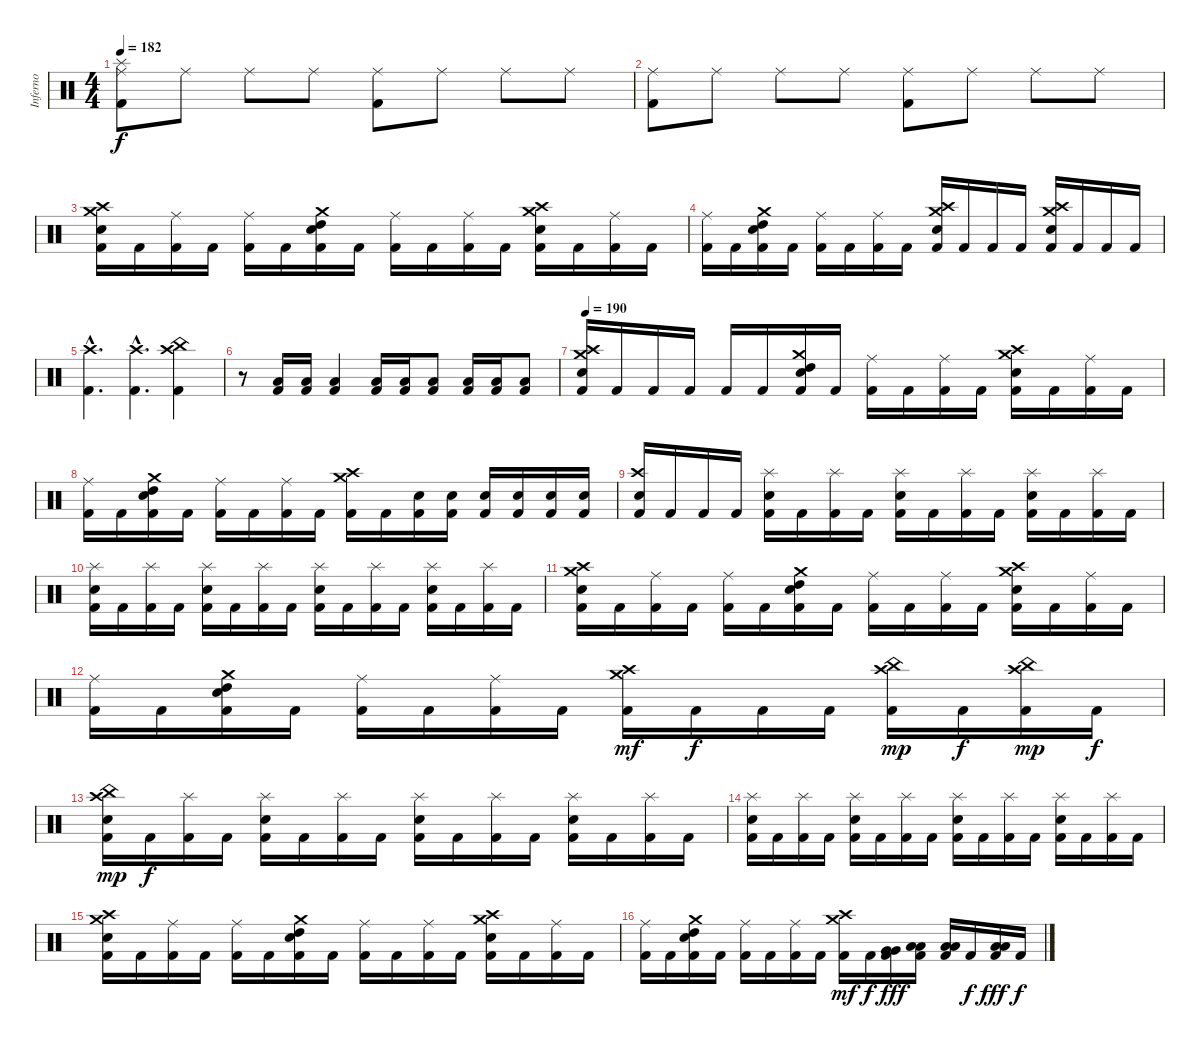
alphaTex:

\track ("Inferno" "Inferno") {instrument percussion}
\staff {score}
\articulation defaults
\ts (4 4)
\tempo 182
\clef neutral
\ks c
("Splash (hit)" "Ride (middle)" "Kick (hit) 2").8{dy f} "Ride (middle)".8 "Ride (middle)".8 "Ride (middle)".8 ("Ride (middle)" "Kick (hit) 2").8 "Ride (middle)".8 "Ride (middle)".8 "Ride (middle)".8 |
("Ride (middle)" "Kick (hit) 2").8 "Ride (middle)".8 "Ride (middle)".8 "Ride (middle)".8 ("Ride (middle)" "Kick (hit) 2").8 "Ride (middle)".8 "Ride (middle)".8 "Ride (middle)".8 |
("Crash medium (hit)" "Crash high (hit)" "Snare (hit) 2" "Kick (hit) 2").16 "Kick (hit) 2".16 ("Ride (middle)" "Kick (hit) 2").16 "Kick (hit) 2".16 ("Ride (middle)" "Kick (hit) 2").16 "Kick (hit) 2".16 ("Crash medium (hit)" "High Tom (hit)" "Snare (hit) 2" "Kick (hit) 2").16 "Kick (hit) 2".16 ("Ride (middle)" "Kick (hit) 2").16 "Kick (hit) 2".16 ("Ride (middle)" "Kick (hit) 2").16 "Kick (hit) 2".16 ("Crash medium (hit)" "Crash high (hit)" "Snare (hit) 2" "Kick (hit) 2").16 "Kick (hit) 2".16 ("Ride (middle)" "Kick (hit) 2").16 "Kick (hit) 2".16 |
("Ride (middle)" "Kick (hit) 2").16 "Kick (hit) 2".16 ("Crash medium (hit)" "High Tom (hit)" "Snare (hit) 2" "Kick (hit) 2").16 "Kick (hit) 2".16 ("Ride (middle)" "Kick (hit) 2").16 "Kick (hit) 2".16 ("Ride (middle)" "Kick (hit) 2").16 "Kick (hit) 2".16 ("Crash medium (hit)" "Crash high (hit)" "Snare (hit) 2" "Kick (hit) 2").16 "Kick (hit) 2".16 "Kick (hit) 2".16 "Kick (hit) 2".16 ("Crash medium (hit)" "Crash high (hit)" "Snare (hit) 2" "Kick (hit) 2").16 "Kick (hit) 2".16 "Kick (hit) 2".16 "Kick (hit) 2".16 |
("Crash high (hit)"{hac} "Kick (hit) 2"{hac}).4{d} ("Crash high (hit)"{hac} "Kick (hit) 2"{hac}).4{d} ("Crash high (hit)" "China (hit)" "Kick (hit) 2").4 |
r.8 ("Low Floor Tom (hit)" "Kick (hit) 2").16 ("Low Floor Tom (hit)" "Kick (hit) 2").16 ("Low Floor Tom (hit)" "Kick (hit) 2").4 ("Low Floor Tom (hit)" "Kick (hit) 2").16 ("Low Floor Tom (hit)" "Kick (hit) 2").16 ("Low Floor Tom (hit)" "Kick (hit) 2").8 ("Low Floor Tom (hit)" "Kick (hit) 2").16 ("Low Floor Tom (hit)" "Kick (hit) 2").16 ("Low Floor Tom (hit)" "Kick (hit) 2").8 |
\tempo 190
("Crash medium (hit)" "Crash high (hit)" "Snare (hit) 2" "Kick (hit) 2").16 "Kick (hit) 2".16 "Kick (hit) 2".16 "Kick (hit) 2".16 "Kick (hit) 2".16 "Kick (hit) 2".16 ("Crash medium (hit)" "High Tom (hit)" "Snare (hit) 2" "Kick (hit) 2").16 "Kick (hit) 2".16 ("Ride (middle)" "Kick (hit) 2").16 "Kick (hit) 2".16 ("Ride (middle)" "Kick (hit) 2").16 "Kick (hit) 2".16 ("Crash medium (hit)" "Crash high (hit)" "Snare (hit) 2" "Kick (hit) 2").16 "Kick (hit) 2".16 ("Ride (middle)" "Kick (hit) 2").16 "Kick (hit) 2".16 |
("Ride (middle)" "Kick (hit) 2").16 "Kick (hit) 2".16 ("Crash medium (hit)" "High Tom (hit)" "Snare (hit) 2" "Kick (hit) 2").16 "Kick (hit) 2".16 ("Ride (middle)" "Kick (hit) 2").16 "Kick (hit) 2".16 ("Ride (middle)" "Kick (hit) 2").16 "Kick (hit) 2".16 ("Crash medium (hit)" "Crash high (hit)" "Kick (hit) 2").16 "Kick (hit) 2".16 ("Snare (hit) 2" "Kick (hit) 2").16 ("Snare (hit) 2" "Kick (hit) 2").16 ("Snare (hit) 2" "Kick (hit) 2").16 ("Snare (hit) 2" "Kick (hit) 2").16 ("Snare (hit) 2" "Kick (hit) 2").16 ("Snare (hit) 2" "Kick (hit) 2").16 |
\section ("" "")
("Crash high (hit)" "Snare (hit) 2" "Kick (hit) 2").16 "Kick (hit) 2".16 "Kick (hit) 2".16 "Kick (hit) 2".16 ("Splash (hit)" "Snare (hit) 2" "Kick (hit) 2").16 "Kick (hit) 2".16 ("Splash (hit)" "Kick (hit) 2").16 "Kick (hit) 2".16 ("Splash (hit)" "Snare (hit) 2" "Kick (hit) 2").16 "Kick (hit) 2".16 ("Splash (hit)" "Kick (hit) 2").16 "Kick (hit) 2".16 ("Splash (hit)" "Snare (hit) 2" "Kick (hit) 2").16 "Kick (hit) 2".16 ("Splash (hit)" "Kick (hit) 2").16 "Kick (hit) 2".16 |
("Splash (hit)" "Snare (hit) 2" "Kick (hit) 2").16 "Kick (hit) 2".16 ("Splash (hit)" "Kick (hit) 2").16 "Kick (hit) 2".16 ("Splash (hit)" "Snare (hit) 2" "Kick (hit) 2").16 "Kick (hit) 2".16 ("Splash (hit)" "Kick (hit) 2").16 "Kick (hit) 2".16 ("Splash (hit)" "Snare (hit) 2" "Kick (hit) 2").16 "Kick (hit) 2".16 ("Splash (hit)" "Kick (hit) 2").16 "Kick (hit) 2".16 ("Splash (hit)" "Snare (hit) 2" "Kick (hit) 2").16 "Kick (hit) 2".16 ("Splash (hit)" "Kick (hit) 2").16 "Kick (hit) 2".16 |
("Crash medium (hit)" "Crash high (hit)" "Snare (hit) 2" "Kick (hit) 2").16 "Kick (hit) 2".16 ("Ride (middle)" "Kick (hit) 2").16 "Kick (hit) 2".16 ("Ride (middle)" "Kick (hit) 2").16 "Kick (hit) 2".16 ("Crash medium (hit)" "High Tom (hit)" "Snare (hit) 2" "Kick (hit) 2").16 "Kick (hit) 2".16 ("Ride (middle)" "Kick (hit) 2").16 "Kick (hit) 2".16 ("Ride (middle)" "Kick (hit) 2").16 "Kick (hit) 2".16 ("Crash medium (hit)" "Crash high (hit)" "Snare (hit) 2" "Kick (hit) 2").16 "Kick (hit) 2".16 ("Ride (middle)" "Kick (hit) 2").16 "Kick (hit) 2".16 |
("Ride (middle)" "Kick (hit) 2").16 "Kick (hit) 2".16 ("Crash medium (hit)" "High Tom (hit)" "Snare (hit) 2" "Kick (hit) 2").16 "Kick (hit) 2".16 ("Ride (middle)" "Kick (hit) 2").16 "Kick (hit) 2".16 ("Ride (middle)" "Kick (hit) 2").16 "Kick (hit) 2".16 ("Crash high (hit)" "Crash medium (hit)" "Kick (hit) 2").16{dy mf} "Kick (hit) 2".16{dy f} "Kick (hit) 2".16 "Kick (hit) 2".16 ("Crash high (hit)" "China (hit)" "Kick (hit) 2").16{dy mp} "Kick (hit) 2".16{dy f} ("Crash high (hit)" "China (hit)" "Kick (hit) 2").16{dy mp} "Kick (hit) 2".16{dy f} |
("Crash high (hit)" "China (hit)" "Snare (hit) 2" "Kick (hit) 2").16{dy mp} "Kick (hit) 2".16{dy f} ("Splash (hit)" "Kick (hit) 2").16 "Kick (hit) 2".16 ("Splash (hit)" "Snare (hit) 2" "Kick (hit) 2").16 "Kick (hit) 2".16 ("Splash (hit)" "Kick (hit) 2").16 "Kick (hit) 2".16 ("Splash (hit)" "Snare (hit) 2" "Kick (hit) 2").16 "Kick (hit) 2".16 ("Splash (hit)" "Kick (hit) 2").16 "Kick (hit) 2".16 ("Splash (hit)" "Snare (hit) 2" "Kick (hit) 2").16 "Kick (hit) 2".16 ("Splash (hit)" "Kick (hit) 2").16 "Kick (hit) 2".16 |
("Splash (hit)" "Snare (hit) 2" "Kick (hit) 2").16 "Kick (hit) 2".16 ("Splash (hit)" "Kick (hit) 2").16 "Kick (hit) 2".16 ("Splash (hit)" "Snare (hit) 2" "Kick (hit) 2").16 "Kick (hit) 2".16 ("Splash (hit)" "Kick (hit) 2").16 "Kick (hit) 2".16 ("Splash (hit)" "Snare (hit) 2" "Kick (hit) 2").16 "Kick (hit) 2".16 ("Splash (hit)" "Kick (hit) 2").16 "Kick (hit) 2".16 ("Splash (hit)" "Snare (hit) 2" "Kick (hit) 2").16 "Kick (hit) 2".16 ("Splash (hit)" "Kick (hit) 2").16 "Kick (hit) 2".16 |
("Crash medium (hit)" "Crash high (hit)" "Snare (hit) 2" "Kick (hit) 2").16 "Kick (hit) 2".16 ("Ride (middle)" "Kick (hit) 2").16 "Kick (hit) 2".16 ("Ride (middle)" "Kick (hit) 2").16 "Kick (hit) 2".16 ("Crash medium (hit)" "High Tom (hit)" "Snare (hit) 2" "Kick (hit) 2").16 "Kick (hit) 2".16 ("Ride (middle)" "Kick (hit) 2").16 "Kick (hit) 2".16 ("Ride (middle)" "Kick (hit) 2").16 "Kick (hit) 2".16 ("Crash medium (hit)" "Crash high (hit)" "Snare (hit) 2" "Kick (hit) 2").16 "Kick (hit) 2".16 ("Ride (middle)" "Kick (hit) 2").16 "Kick (hit) 2".16 |
("Ride (middle)" "Kick (hit) 2").16 "Kick (hit) 2".16 ("Crash medium (hit)" "High Tom (hit)" "Snare (hit) 2" "Kick (hit) 2").16 "Kick (hit) 2".16 ("Ride (middle)" "Kick (hit) 2").16 "Kick (hit) 2".16 ("Ride (middle)" "Kick (hit) 2").16 "Kick (hit) 2".16 ("Crash high (hit)" "Crash medium (hit)" "Kick (hit) 2").16{dy mf} "Kick (hit) 2".16{dy f} ("Very Low Tom (hit)" "Very Low Tom (hit)" "Kick (hit) 2").16{dy fff} ("Low Floor Tom (hit)" "Low Floor Tom (hit)" "Kick (hit) 2").16 ("Low Floor Tom (hit)" "Low Floor Tom (hit)" "Kick (hit) 2").16 "Kick (hit) 2".16{dy f} ("Low Floor Tom (hit)" "Low Floor Tom (hit)" "Kick (hit) 2").16{dy fff} "Kick (hit) 2".16{dy f}
